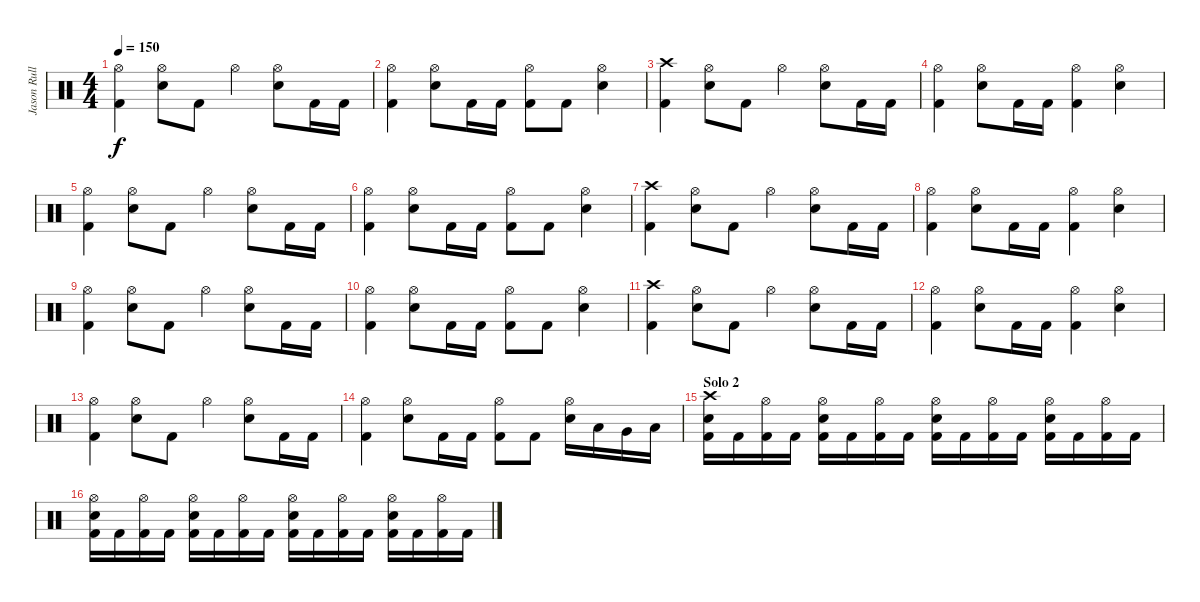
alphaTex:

\track ("Jason Rullo" "Jason Rull") {instrument percussion}
\staff {score}
\articulation defaults
\ts (4 4)
\tempo 150
\clef neutral
\ks c
("Hi-Hat (open)" "Kick (hit) 2").4{dy f} ("Hi-Hat (open)" "Electric Snare (hit)").8 "Kick (hit) 2".8 "Hi-Hat (open)".4 ("Hi-Hat (open)" "Electric Snare (hit)").8 "Kick (hit) 2".16 "Kick (hit) 2".16 |
("Hi-Hat (open)" "Kick (hit) 2").4 ("Hi-Hat (open)" "Electric Snare (hit)").8 "Kick (hit) 2".16 "Kick (hit) 2".16 ("Hi-Hat (open)" "Kick (hit) 2").8 "Kick (hit) 2".8 ("Hi-Hat (open)" "Electric Snare (hit)").4 |
("Crash high (hit)" "Kick (hit) 2").4 ("Hi-Hat (open)" "Electric Snare (hit)").8 "Kick (hit) 2".8 "Hi-Hat (open)".4 ("Hi-Hat (open)" "Electric Snare (hit)").8 "Kick (hit) 2".16 "Kick (hit) 2".16 |
("Hi-Hat (open)" "Kick (hit) 2").4 ("Hi-Hat (open)" "Electric Snare (hit)").8 "Kick (hit) 2".16 "Kick (hit) 2".16 ("Hi-Hat (open)" "Kick (hit) 2").4 ("Hi-Hat (open)" "Electric Snare (hit)").4 |
("Hi-Hat (open)" "Kick (hit) 2").4 ("Hi-Hat (open)" "Electric Snare (hit)").8 "Kick (hit) 2".8 "Hi-Hat (open)".4 ("Hi-Hat (open)" "Electric Snare (hit)").8 "Kick (hit) 2".16 "Kick (hit) 2".16 |
("Hi-Hat (open)" "Kick (hit) 2").4 ("Hi-Hat (open)" "Electric Snare (hit)").8 "Kick (hit) 2".16 "Kick (hit) 2".16 ("Hi-Hat (open)" "Kick (hit) 2").8 "Kick (hit) 2".8 ("Hi-Hat (open)" "Electric Snare (hit)").4 |
("Crash high (hit)" "Kick (hit) 2").4 ("Hi-Hat (open)" "Electric Snare (hit)").8 "Kick (hit) 2".8 "Hi-Hat (open)".4 ("Hi-Hat (open)" "Electric Snare (hit)").8 "Kick (hit) 2".16 "Kick (hit) 2".16 |
("Hi-Hat (open)" "Kick (hit) 2").4 ("Hi-Hat (open)" "Electric Snare (hit)").8 "Kick (hit) 2".16 "Kick (hit) 2".16 ("Hi-Hat (open)" "Kick (hit) 2").4 ("Hi-Hat (open)" "Electric Snare (hit)").4 |
("Hi-Hat (open)" "Kick (hit) 2").4 ("Hi-Hat (open)" "Electric Snare (hit)").8 "Kick (hit) 2".8 "Hi-Hat (open)".4 ("Hi-Hat (open)" "Electric Snare (hit)").8 "Kick (hit) 2".16 "Kick (hit) 2".16 |
("Hi-Hat (open)" "Kick (hit) 2").4 ("Hi-Hat (open)" "Electric Snare (hit)").8 "Kick (hit) 2".16 "Kick (hit) 2".16 ("Hi-Hat (open)" "Kick (hit) 2").8 "Kick (hit) 2".8 ("Hi-Hat (open)" "Electric Snare (hit)").4 |
("Crash high (hit)" "Kick (hit) 2").4 ("Hi-Hat (open)" "Electric Snare (hit)").8 "Kick (hit) 2".8 "Hi-Hat (open)".4 ("Hi-Hat (open)" "Electric Snare (hit)").8 "Kick (hit) 2".16 "Kick (hit) 2".16 |
("Hi-Hat (open)" "Kick (hit) 2").4 ("Hi-Hat (open)" "Electric Snare (hit)").8 "Kick (hit) 2".16 "Kick (hit) 2".16 ("Hi-Hat (open)" "Kick (hit) 2").4 ("Hi-Hat (open)" "Electric Snare (hit)").4 |
("Hi-Hat (open)" "Kick (hit) 2").4 ("Hi-Hat (open)" "Electric Snare (hit)").8 "Kick (hit) 2".8 "Hi-Hat (open)".4 ("Hi-Hat (open)" "Electric Snare (hit)").8 "Kick (hit) 2".16 "Kick (hit) 2".16 |
("Hi-Hat (open)" "Kick (hit) 2").4 ("Hi-Hat (open)" "Electric Snare (hit)").8 "Kick (hit) 2".16 "Kick (hit) 2".16 ("Hi-Hat (open)" "Kick (hit) 2").8 "Kick (hit) 2".8 ("Hi-Hat (open)" "Electric Snare (hit)").16 "Low Tom (hit)".16 "Very Low Tom (hit)".16 "Low Floor Tom (hit)".16 |
\section ("" "Solo 2")
("Crash high (hit)" "Electric Snare (hit)" "Kick (hit) 2").16 "Kick (hit) 2".16 ("Hi-Hat (open)" "Kick (hit) 2").16 "Kick (hit) 2".16 ("Hi-Hat (open)" "Electric Snare (hit)" "Kick (hit) 2").16 "Kick (hit) 2".16 ("Hi-Hat (open)" "Kick (hit) 2").16 "Kick (hit) 2".16 ("Hi-Hat (open)" "Electric Snare (hit)" "Kick (hit) 2").16 "Kick (hit) 2".16 ("Hi-Hat (open)" "Kick (hit) 2").16 "Kick (hit) 2".16 ("Hi-Hat (open)" "Electric Snare (hit)" "Kick (hit) 2").16 "Kick (hit) 2".16 ("Hi-Hat (open)" "Kick (hit) 2").16 "Kick (hit) 2".16 |
("Hi-Hat (open)" "Electric Snare (hit)" "Kick (hit) 2").16 "Kick (hit) 2".16 ("Hi-Hat (open)" "Kick (hit) 2").16 "Kick (hit) 2".16 ("Hi-Hat (open)" "Electric Snare (hit)" "Kick (hit) 2").16 "Kick (hit) 2".16 ("Hi-Hat (open)" "Kick (hit) 2").16 "Kick (hit) 2".16 ("Hi-Hat (open)" "Electric Snare (hit)" "Kick (hit) 2").16 "Kick (hit) 2".16 ("Hi-Hat (open)" "Kick (hit) 2").16 "Kick (hit) 2".16 ("Hi-Hat (open)" "Electric Snare (hit)" "Kick (hit) 2").16 "Kick (hit) 2".16 ("Hi-Hat (open)" "Kick (hit) 2").16 "Kick (hit) 2".16
